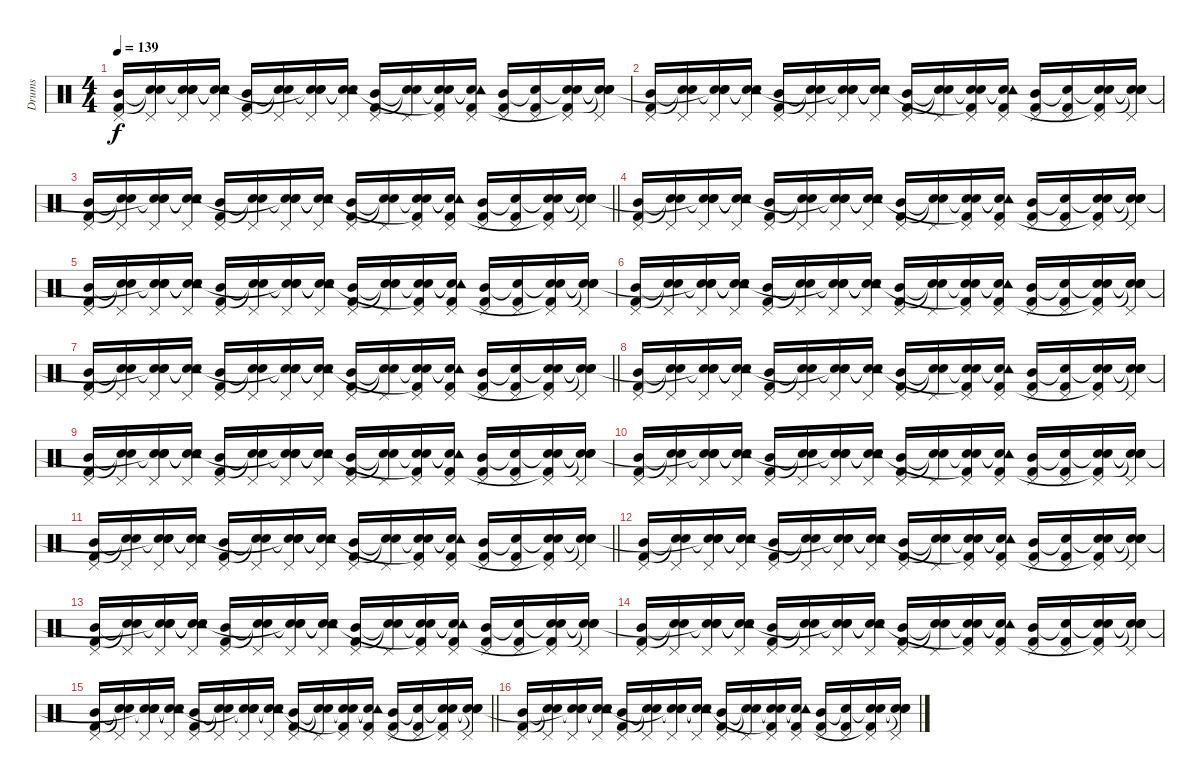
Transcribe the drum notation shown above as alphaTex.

\track ("Drums" "Drums") {instrument percussion}
\staff {score}
\articulation defaults
\ts (4 4)
\tempo 139
\clef neutral
\ks c
("Mid Tom (hit)" "Pedal Hi-Hat (hit)" "Kick (hit) 2").16{dy f} ("Snare (hit)"{t} "Pedal Hi-Hat (hit)" "Snare (hit)"{t}).16 ("Snare (hit)"{t} "Snare (hit) 2" "Pedal Hi-Hat (hit)" "Snare (hit)"{t}).16 ("Snare (hit)"{t} "Tambourine (hit)"{t} "Pedal Hi-Hat (hit)" "Snare (hit)"{t}).16 ("Mid Tom (hit)" "Pedal Hi-Hat (hit)" "Kick (hit) 2").16 ("Snare (hit)"{t} "Pedal Hi-Hat (hit)" "Snare (hit)"{t}).16 ("Snare (hit)"{t} "Snare (hit) 2" "Pedal Hi-Hat (hit)" "Snare (hit)"{t}).16 ("Snare (hit)"{t} "Tambourine (hit)"{t} "Pedal Hi-Hat (hit)" "Snare (hit)"{t}).16 ("Mid Tom (hit)" "Pedal Hi-Hat (hit)" "Kick (hit) 2").16 ("Snare (hit)"{t} "Pedal Hi-Hat (hit)" "Snare (hit)"{t}).16 ("Snare (hit)"{t} "Snare (hit) 2" "Pedal Hi-Hat (hit)" "Kick (hit) 2"{t}).16 ("Snare (hit)"{t} "Tambourine (hit)"{t} "Pedal Hi-Hat (hit)" "Kick (hit) 2").16 ("Mid Tom (hit)" "Pedal Hi-Hat (hit)" "Kick (hit) 2").16 ("Snare (hit)"{t} "Pedal Hi-Hat (hit)" "Kick (hit) 2").16 ("Snare (hit)"{t} "Snare (hit) 2" "Pedal Hi-Hat (hit)" "Kick (hit) 2"{t}).16 ("Snare (hit)"{t} "Snare (hit)"{t} "Pedal Hi-Hat (hit)" "Snare (hit)"{t}).16 |
("Mid Tom (hit)" "Pedal Hi-Hat (hit)" "Kick (hit) 2").16 ("Snare (hit)"{t} "Pedal Hi-Hat (hit)" "Snare (hit)"{t}).16 ("Snare (hit)"{t} "Snare (hit) 2" "Pedal Hi-Hat (hit)" "Snare (hit)"{t}).16 ("Snare (hit)"{t} "Tambourine (hit)"{t} "Pedal Hi-Hat (hit)" "Snare (hit)"{t}).16 ("Mid Tom (hit)" "Pedal Hi-Hat (hit)" "Kick (hit) 2").16 ("Snare (hit)"{t} "Pedal Hi-Hat (hit)" "Snare (hit)"{t}).16 ("Snare (hit)"{t} "Snare (hit) 2" "Pedal Hi-Hat (hit)" "Snare (hit)"{t}).16 ("Snare (hit)"{t} "Tambourine (hit)"{t} "Pedal Hi-Hat (hit)" "Snare (hit)"{t}).16 ("Mid Tom (hit)" "Pedal Hi-Hat (hit)" "Kick (hit) 2").16 ("Snare (hit)"{t} "Pedal Hi-Hat (hit)" "Snare (hit)"{t}).16 ("Snare (hit)"{t} "Snare (hit) 2" "Pedal Hi-Hat (hit)" "Kick (hit) 2"{t}).16 ("Snare (hit)"{t} "Tambourine (hit)"{t} "Pedal Hi-Hat (hit)" "Kick (hit) 2").16 ("Mid Tom (hit)" "Pedal Hi-Hat (hit)" "Kick (hit) 2").16 ("Snare (hit)"{t} "Pedal Hi-Hat (hit)" "Kick (hit) 2").16 ("Snare (hit)"{t} "Snare (hit) 2" "Pedal Hi-Hat (hit)" "Kick (hit) 2"{t}).16 ("Snare (hit)"{t} "Snare (hit)"{t} "Pedal Hi-Hat (hit)" "Snare (hit)"{t}).16 |
\barLineRight lightlight
("Mid Tom (hit)" "Pedal Hi-Hat (hit)" "Kick (hit) 2").16 ("Snare (hit)"{t} "Pedal Hi-Hat (hit)" "Snare (hit)"{t}).16 ("Snare (hit)"{t} "Snare (hit) 2" "Pedal Hi-Hat (hit)" "Snare (hit)"{t}).16 ("Snare (hit)"{t} "Tambourine (hit)"{t} "Pedal Hi-Hat (hit)" "Snare (hit)"{t}).16 ("Mid Tom (hit)" "Pedal Hi-Hat (hit)" "Kick (hit) 2").16 ("Snare (hit)"{t} "Pedal Hi-Hat (hit)" "Snare (hit)"{t}).16 ("Snare (hit)"{t} "Snare (hit) 2" "Pedal Hi-Hat (hit)" "Snare (hit)"{t}).16 ("Snare (hit)"{t} "Tambourine (hit)"{t} "Pedal Hi-Hat (hit)" "Snare (hit)"{t}).16 ("Mid Tom (hit)" "Pedal Hi-Hat (hit)" "Kick (hit) 2").16 ("Snare (hit)"{t} "Pedal Hi-Hat (hit)" "Snare (hit)"{t}).16 ("Snare (hit)"{t} "Snare (hit) 2" "Pedal Hi-Hat (hit)" "Kick (hit) 2"{t}).16 ("Snare (hit)"{t} "Tambourine (hit)"{t} "Pedal Hi-Hat (hit)" "Kick (hit) 2").16 ("Mid Tom (hit)" "Pedal Hi-Hat (hit)" "Kick (hit) 2").16 ("Snare (hit)"{t} "Pedal Hi-Hat (hit)" "Kick (hit) 2").16 ("Snare (hit)"{t} "Snare (hit) 2" "Pedal Hi-Hat (hit)" "Kick (hit) 2"{t}).16 ("Snare (hit)"{t} "Snare (hit)"{t} "Pedal Hi-Hat (hit)" "Snare (hit)"{t}).16 |
("Mid Tom (hit)" "Pedal Hi-Hat (hit)" "Kick (hit) 2").16 ("Snare (hit)"{t} "Pedal Hi-Hat (hit)" "Snare (hit)"{t}).16 ("Snare (hit)"{t} "Snare (hit) 2" "Pedal Hi-Hat (hit)" "Snare (hit)"{t}).16 ("Snare (hit)"{t} "Tambourine (hit)"{t} "Pedal Hi-Hat (hit)" "Snare (hit)"{t}).16 ("Mid Tom (hit)" "Pedal Hi-Hat (hit)" "Kick (hit) 2").16 ("Snare (hit)"{t} "Pedal Hi-Hat (hit)" "Snare (hit)"{t}).16 ("Snare (hit)"{t} "Snare (hit) 2" "Pedal Hi-Hat (hit)" "Snare (hit)"{t}).16 ("Snare (hit)"{t} "Tambourine (hit)"{t} "Pedal Hi-Hat (hit)" "Snare (hit)"{t}).16 ("Mid Tom (hit)" "Pedal Hi-Hat (hit)" "Kick (hit) 2").16 ("Snare (hit)"{t} "Pedal Hi-Hat (hit)" "Snare (hit)"{t}).16 ("Snare (hit)"{t} "Snare (hit) 2" "Pedal Hi-Hat (hit)" "Kick (hit) 2"{t}).16 ("Snare (hit)"{t} "Tambourine (hit)"{t} "Pedal Hi-Hat (hit)" "Kick (hit) 2").16 ("Mid Tom (hit)" "Pedal Hi-Hat (hit)" "Kick (hit) 2").16 ("Snare (hit)"{t} "Pedal Hi-Hat (hit)" "Kick (hit) 2").16 ("Snare (hit)"{t} "Snare (hit) 2" "Pedal Hi-Hat (hit)" "Kick (hit) 2"{t}).16 ("Snare (hit)"{t} "Snare (hit)"{t} "Pedal Hi-Hat (hit)" "Snare (hit)"{t}).16 |
("Mid Tom (hit)" "Pedal Hi-Hat (hit)" "Kick (hit) 2").16 ("Snare (hit)"{t} "Pedal Hi-Hat (hit)" "Snare (hit)"{t}).16 ("Snare (hit)"{t} "Snare (hit) 2" "Pedal Hi-Hat (hit)" "Snare (hit)"{t}).16 ("Snare (hit)"{t} "Tambourine (hit)"{t} "Pedal Hi-Hat (hit)" "Snare (hit)"{t}).16 ("Mid Tom (hit)" "Pedal Hi-Hat (hit)" "Kick (hit) 2").16 ("Snare (hit)"{t} "Pedal Hi-Hat (hit)" "Snare (hit)"{t}).16 ("Snare (hit)"{t} "Snare (hit) 2" "Pedal Hi-Hat (hit)" "Snare (hit)"{t}).16 ("Snare (hit)"{t} "Tambourine (hit)"{t} "Pedal Hi-Hat (hit)" "Snare (hit)"{t}).16 ("Mid Tom (hit)" "Pedal Hi-Hat (hit)" "Kick (hit) 2").16 ("Snare (hit)"{t} "Pedal Hi-Hat (hit)" "Snare (hit)"{t}).16 ("Snare (hit)"{t} "Snare (hit) 2" "Pedal Hi-Hat (hit)" "Kick (hit) 2"{t}).16 ("Snare (hit)"{t} "Tambourine (hit)"{t} "Pedal Hi-Hat (hit)" "Kick (hit) 2").16 ("Mid Tom (hit)" "Pedal Hi-Hat (hit)" "Kick (hit) 2").16 ("Snare (hit)"{t} "Pedal Hi-Hat (hit)" "Kick (hit) 2").16 ("Snare (hit)"{t} "Snare (hit) 2" "Pedal Hi-Hat (hit)" "Kick (hit) 2"{t}).16 ("Snare (hit)"{t} "Snare (hit)"{t} "Pedal Hi-Hat (hit)" "Snare (hit)"{t}).16 |
("Mid Tom (hit)" "Pedal Hi-Hat (hit)" "Kick (hit) 2").16 ("Snare (hit)"{t} "Pedal Hi-Hat (hit)" "Snare (hit)"{t}).16 ("Snare (hit)"{t} "Snare (hit) 2" "Pedal Hi-Hat (hit)" "Snare (hit)"{t}).16 ("Snare (hit)"{t} "Tambourine (hit)"{t} "Pedal Hi-Hat (hit)" "Snare (hit)"{t}).16 ("Mid Tom (hit)" "Pedal Hi-Hat (hit)" "Kick (hit) 2").16 ("Snare (hit)"{t} "Pedal Hi-Hat (hit)" "Snare (hit)"{t}).16 ("Snare (hit)"{t} "Snare (hit) 2" "Pedal Hi-Hat (hit)" "Snare (hit)"{t}).16 ("Snare (hit)"{t} "Tambourine (hit)"{t} "Pedal Hi-Hat (hit)" "Snare (hit)"{t}).16 ("Mid Tom (hit)" "Pedal Hi-Hat (hit)" "Kick (hit) 2").16 ("Snare (hit)"{t} "Pedal Hi-Hat (hit)" "Snare (hit)"{t}).16 ("Snare (hit)"{t} "Snare (hit) 2" "Pedal Hi-Hat (hit)" "Kick (hit) 2"{t}).16 ("Snare (hit)"{t} "Tambourine (hit)"{t} "Pedal Hi-Hat (hit)" "Kick (hit) 2").16 ("Mid Tom (hit)" "Pedal Hi-Hat (hit)" "Kick (hit) 2").16 ("Snare (hit)"{t} "Pedal Hi-Hat (hit)" "Kick (hit) 2").16 ("Snare (hit)"{t} "Snare (hit) 2" "Pedal Hi-Hat (hit)" "Kick (hit) 2"{t}).16 ("Snare (hit)"{t} "Snare (hit)"{t} "Pedal Hi-Hat (hit)" "Snare (hit)"{t}).16 |
\barLineRight lightlight
("Mid Tom (hit)" "Pedal Hi-Hat (hit)" "Kick (hit) 2").16 ("Snare (hit)"{t} "Pedal Hi-Hat (hit)" "Snare (hit)"{t}).16 ("Snare (hit)"{t} "Snare (hit) 2" "Pedal Hi-Hat (hit)" "Snare (hit)"{t}).16 ("Snare (hit)"{t} "Tambourine (hit)"{t} "Pedal Hi-Hat (hit)" "Snare (hit)"{t}).16 ("Mid Tom (hit)" "Pedal Hi-Hat (hit)" "Kick (hit) 2").16 ("Snare (hit)"{t} "Pedal Hi-Hat (hit)" "Snare (hit)"{t}).16 ("Snare (hit)"{t} "Snare (hit) 2" "Pedal Hi-Hat (hit)" "Snare (hit)"{t}).16 ("Snare (hit)"{t} "Tambourine (hit)"{t} "Pedal Hi-Hat (hit)" "Snare (hit)"{t}).16 ("Mid Tom (hit)" "Pedal Hi-Hat (hit)" "Kick (hit) 2").16 ("Snare (hit)"{t} "Pedal Hi-Hat (hit)" "Snare (hit)"{t}).16 ("Snare (hit)"{t} "Snare (hit) 2" "Pedal Hi-Hat (hit)" "Kick (hit) 2"{t}).16 ("Snare (hit)"{t} "Tambourine (hit)"{t} "Pedal Hi-Hat (hit)" "Kick (hit) 2").16 ("Mid Tom (hit)" "Pedal Hi-Hat (hit)" "Kick (hit) 2").16 ("Snare (hit)"{t} "Pedal Hi-Hat (hit)" "Kick (hit) 2").16 ("Snare (hit)"{t} "Snare (hit) 2" "Pedal Hi-Hat (hit)" "Kick (hit) 2"{t}).16 ("Snare (hit)"{t} "Snare (hit)"{t} "Pedal Hi-Hat (hit)" "Snare (hit)"{t}).16 |
("Mid Tom (hit)" "Pedal Hi-Hat (hit)" "Kick (hit) 2").16 ("Snare (hit)"{t} "Pedal Hi-Hat (hit)" "Snare (hit)"{t}).16 ("Snare (hit)"{t} "Snare (hit) 2" "Pedal Hi-Hat (hit)" "Snare (hit)"{t}).16 ("Snare (hit)"{t} "Tambourine (hit)"{t} "Pedal Hi-Hat (hit)" "Snare (hit)"{t}).16 ("Mid Tom (hit)" "Pedal Hi-Hat (hit)" "Kick (hit) 2").16 ("Snare (hit)"{t} "Pedal Hi-Hat (hit)" "Snare (hit)"{t}).16 ("Snare (hit)"{t} "Snare (hit) 2" "Pedal Hi-Hat (hit)" "Snare (hit)"{t}).16 ("Snare (hit)"{t} "Tambourine (hit)"{t} "Pedal Hi-Hat (hit)" "Snare (hit)"{t}).16 ("Mid Tom (hit)" "Pedal Hi-Hat (hit)" "Kick (hit) 2").16 ("Snare (hit)"{t} "Pedal Hi-Hat (hit)" "Snare (hit)"{t}).16 ("Snare (hit)"{t} "Snare (hit) 2" "Pedal Hi-Hat (hit)" "Kick (hit) 2"{t}).16 ("Snare (hit)"{t} "Tambourine (hit)"{t} "Pedal Hi-Hat (hit)" "Kick (hit) 2").16 ("Mid Tom (hit)" "Pedal Hi-Hat (hit)" "Kick (hit) 2").16 ("Snare (hit)"{t} "Pedal Hi-Hat (hit)" "Kick (hit) 2").16 ("Snare (hit)"{t} "Snare (hit) 2" "Pedal Hi-Hat (hit)" "Kick (hit) 2"{t}).16 ("Snare (hit)"{t} "Snare (hit)"{t} "Pedal Hi-Hat (hit)" "Snare (hit)"{t}).16 |
("Mid Tom (hit)" "Pedal Hi-Hat (hit)" "Kick (hit) 2").16 ("Snare (hit)"{t} "Pedal Hi-Hat (hit)" "Snare (hit)"{t}).16 ("Snare (hit)"{t} "Snare (hit) 2" "Pedal Hi-Hat (hit)" "Snare (hit)"{t}).16 ("Snare (hit)"{t} "Tambourine (hit)"{t} "Pedal Hi-Hat (hit)" "Snare (hit)"{t}).16 ("Mid Tom (hit)" "Pedal Hi-Hat (hit)" "Kick (hit) 2").16 ("Snare (hit)"{t} "Pedal Hi-Hat (hit)" "Snare (hit)"{t}).16 ("Snare (hit)"{t} "Snare (hit) 2" "Pedal Hi-Hat (hit)" "Snare (hit)"{t}).16 ("Snare (hit)"{t} "Tambourine (hit)"{t} "Pedal Hi-Hat (hit)" "Snare (hit)"{t}).16 ("Mid Tom (hit)" "Pedal Hi-Hat (hit)" "Kick (hit) 2").16 ("Snare (hit)"{t} "Pedal Hi-Hat (hit)" "Snare (hit)"{t}).16 ("Snare (hit)"{t} "Snare (hit) 2" "Pedal Hi-Hat (hit)" "Kick (hit) 2"{t}).16 ("Snare (hit)"{t} "Tambourine (hit)"{t} "Pedal Hi-Hat (hit)" "Kick (hit) 2").16 ("Mid Tom (hit)" "Pedal Hi-Hat (hit)" "Kick (hit) 2").16 ("Snare (hit)"{t} "Pedal Hi-Hat (hit)" "Kick (hit) 2").16 ("Snare (hit)"{t} "Snare (hit) 2" "Pedal Hi-Hat (hit)" "Kick (hit) 2"{t}).16 ("Snare (hit)"{t} "Snare (hit)"{t} "Pedal Hi-Hat (hit)" "Snare (hit)"{t}).16 |
("Mid Tom (hit)" "Pedal Hi-Hat (hit)" "Kick (hit) 2").16 ("Snare (hit)"{t} "Pedal Hi-Hat (hit)" "Snare (hit)"{t}).16 ("Snare (hit)"{t} "Snare (hit) 2" "Pedal Hi-Hat (hit)" "Snare (hit)"{t}).16 ("Snare (hit)"{t} "Tambourine (hit)"{t} "Pedal Hi-Hat (hit)" "Snare (hit)"{t}).16 ("Mid Tom (hit)" "Pedal Hi-Hat (hit)" "Kick (hit) 2").16 ("Snare (hit)"{t} "Pedal Hi-Hat (hit)" "Snare (hit)"{t}).16 ("Snare (hit)"{t} "Snare (hit) 2" "Pedal Hi-Hat (hit)" "Snare (hit)"{t}).16 ("Snare (hit)"{t} "Tambourine (hit)"{t} "Pedal Hi-Hat (hit)" "Snare (hit)"{t}).16 ("Mid Tom (hit)" "Pedal Hi-Hat (hit)" "Kick (hit) 2").16 ("Snare (hit)"{t} "Pedal Hi-Hat (hit)" "Snare (hit)"{t}).16 ("Snare (hit)"{t} "Snare (hit) 2" "Pedal Hi-Hat (hit)" "Kick (hit) 2"{t}).16 ("Snare (hit)"{t} "Tambourine (hit)"{t} "Pedal Hi-Hat (hit)" "Kick (hit) 2").16 ("Mid Tom (hit)" "Pedal Hi-Hat (hit)" "Kick (hit) 2").16 ("Snare (hit)"{t} "Pedal Hi-Hat (hit)" "Kick (hit) 2").16 ("Snare (hit)"{t} "Snare (hit) 2" "Pedal Hi-Hat (hit)" "Kick (hit) 2"{t}).16 ("Snare (hit)"{t} "Snare (hit)"{t} "Pedal Hi-Hat (hit)" "Snare (hit)"{t}).16 |
\barLineRight lightlight
("Mid Tom (hit)" "Pedal Hi-Hat (hit)" "Kick (hit) 2").16 ("Snare (hit)"{t} "Pedal Hi-Hat (hit)" "Snare (hit)"{t}).16 ("Snare (hit)"{t} "Snare (hit) 2" "Pedal Hi-Hat (hit)" "Snare (hit)"{t}).16 ("Snare (hit)"{t} "Tambourine (hit)"{t} "Pedal Hi-Hat (hit)" "Snare (hit)"{t}).16 ("Mid Tom (hit)" "Pedal Hi-Hat (hit)" "Kick (hit) 2").16 ("Snare (hit)"{t} "Pedal Hi-Hat (hit)" "Snare (hit)"{t}).16 ("Snare (hit)"{t} "Snare (hit) 2" "Pedal Hi-Hat (hit)" "Snare (hit)"{t}).16 ("Snare (hit)"{t} "Tambourine (hit)"{t} "Pedal Hi-Hat (hit)" "Snare (hit)"{t}).16 ("Mid Tom (hit)" "Pedal Hi-Hat (hit)" "Kick (hit) 2").16 ("Snare (hit)"{t} "Pedal Hi-Hat (hit)" "Snare (hit)"{t}).16 ("Snare (hit)"{t} "Snare (hit) 2" "Pedal Hi-Hat (hit)" "Kick (hit) 2"{t}).16 ("Snare (hit)"{t} "Tambourine (hit)"{t} "Pedal Hi-Hat (hit)" "Kick (hit) 2").16 ("Mid Tom (hit)" "Pedal Hi-Hat (hit)" "Kick (hit) 2").16 ("Snare (hit)"{t} "Pedal Hi-Hat (hit)" "Kick (hit) 2").16 ("Snare (hit)"{t} "Snare (hit) 2" "Pedal Hi-Hat (hit)" "Kick (hit) 2"{t}).16 ("Snare (hit)"{t} "Snare (hit)"{t} "Pedal Hi-Hat (hit)" "Snare (hit)"{t}).16 |
("Mid Tom (hit)" "Pedal Hi-Hat (hit)" "Kick (hit) 2").16 ("Snare (hit)"{t} "Pedal Hi-Hat (hit)" "Snare (hit)"{t}).16 ("Snare (hit)"{t} "Snare (hit) 2" "Pedal Hi-Hat (hit)" "Snare (hit)"{t}).16 ("Snare (hit)"{t} "Tambourine (hit)"{t} "Pedal Hi-Hat (hit)" "Snare (hit)"{t}).16 ("Mid Tom (hit)" "Pedal Hi-Hat (hit)" "Kick (hit) 2").16 ("Snare (hit)"{t} "Pedal Hi-Hat (hit)" "Snare (hit)"{t}).16 ("Snare (hit)"{t} "Snare (hit) 2" "Pedal Hi-Hat (hit)" "Snare (hit)"{t}).16 ("Snare (hit)"{t} "Tambourine (hit)"{t} "Pedal Hi-Hat (hit)" "Snare (hit)"{t}).16 ("Mid Tom (hit)" "Pedal Hi-Hat (hit)" "Kick (hit) 2").16 ("Snare (hit)"{t} "Pedal Hi-Hat (hit)" "Snare (hit)"{t}).16 ("Snare (hit)"{t} "Snare (hit) 2" "Pedal Hi-Hat (hit)" "Kick (hit) 2"{t}).16 ("Snare (hit)"{t} "Tambourine (hit)"{t} "Pedal Hi-Hat (hit)" "Kick (hit) 2").16 ("Mid Tom (hit)" "Pedal Hi-Hat (hit)" "Kick (hit) 2").16 ("Snare (hit)"{t} "Pedal Hi-Hat (hit)" "Kick (hit) 2").16 ("Snare (hit)"{t} "Snare (hit) 2" "Pedal Hi-Hat (hit)" "Kick (hit) 2"{t}).16 ("Snare (hit)"{t} "Snare (hit)"{t} "Pedal Hi-Hat (hit)" "Snare (hit)"{t}).16 |
("Mid Tom (hit)" "Pedal Hi-Hat (hit)" "Kick (hit) 2").16 ("Snare (hit)"{t} "Pedal Hi-Hat (hit)" "Snare (hit)"{t}).16 ("Snare (hit)"{t} "Snare (hit) 2" "Pedal Hi-Hat (hit)" "Snare (hit)"{t}).16 ("Snare (hit)"{t} "Tambourine (hit)"{t} "Pedal Hi-Hat (hit)" "Snare (hit)"{t}).16 ("Mid Tom (hit)" "Pedal Hi-Hat (hit)" "Kick (hit) 2").16 ("Snare (hit)"{t} "Pedal Hi-Hat (hit)" "Snare (hit)"{t}).16 ("Snare (hit)"{t} "Snare (hit) 2" "Pedal Hi-Hat (hit)" "Snare (hit)"{t}).16 ("Snare (hit)"{t} "Tambourine (hit)"{t} "Pedal Hi-Hat (hit)" "Snare (hit)"{t}).16 ("Mid Tom (hit)" "Pedal Hi-Hat (hit)" "Kick (hit) 2").16 ("Snare (hit)"{t} "Pedal Hi-Hat (hit)" "Snare (hit)"{t}).16 ("Snare (hit)"{t} "Snare (hit) 2" "Pedal Hi-Hat (hit)" "Kick (hit) 2"{t}).16 ("Snare (hit)"{t} "Tambourine (hit)"{t} "Pedal Hi-Hat (hit)" "Kick (hit) 2").16 ("Mid Tom (hit)" "Pedal Hi-Hat (hit)" "Kick (hit) 2").16 ("Snare (hit)"{t} "Pedal Hi-Hat (hit)" "Kick (hit) 2").16 ("Snare (hit)"{t} "Snare (hit) 2" "Pedal Hi-Hat (hit)" "Kick (hit) 2"{t}).16 ("Snare (hit)"{t} "Snare (hit)"{t} "Pedal Hi-Hat (hit)" "Snare (hit)"{t}).16 |
("Mid Tom (hit)" "Pedal Hi-Hat (hit)" "Kick (hit) 2").16 ("Snare (hit)"{t} "Pedal Hi-Hat (hit)" "Snare (hit)"{t}).16 ("Snare (hit)"{t} "Snare (hit) 2" "Pedal Hi-Hat (hit)" "Snare (hit)"{t}).16 ("Snare (hit)"{t} "Tambourine (hit)"{t} "Pedal Hi-Hat (hit)" "Snare (hit)"{t}).16 ("Mid Tom (hit)" "Pedal Hi-Hat (hit)" "Kick (hit) 2").16 ("Snare (hit)"{t} "Pedal Hi-Hat (hit)" "Snare (hit)"{t}).16 ("Snare (hit)"{t} "Snare (hit) 2" "Pedal Hi-Hat (hit)" "Snare (hit)"{t}).16 ("Snare (hit)"{t} "Tambourine (hit)"{t} "Pedal Hi-Hat (hit)" "Snare (hit)"{t}).16 ("Mid Tom (hit)" "Pedal Hi-Hat (hit)" "Kick (hit) 2").16 ("Snare (hit)"{t} "Pedal Hi-Hat (hit)" "Snare (hit)"{t}).16 ("Snare (hit)"{t} "Snare (hit) 2" "Pedal Hi-Hat (hit)" "Kick (hit) 2"{t}).16 ("Snare (hit)"{t} "Tambourine (hit)"{t} "Pedal Hi-Hat (hit)" "Kick (hit) 2").16 ("Mid Tom (hit)" "Pedal Hi-Hat (hit)" "Kick (hit) 2").16 ("Snare (hit)"{t} "Pedal Hi-Hat (hit)" "Kick (hit) 2").16 ("Snare (hit)"{t} "Snare (hit) 2" "Pedal Hi-Hat (hit)" "Kick (hit) 2"{t}).16 ("Snare (hit)"{t} "Snare (hit)"{t} "Pedal Hi-Hat (hit)" "Snare (hit)"{t}).16 |
\barLineRight lightlight
("Mid Tom (hit)" "Pedal Hi-Hat (hit)" "Kick (hit) 2").16 ("Snare (hit)"{t} "Pedal Hi-Hat (hit)" "Snare (hit)"{t}).16 ("Snare (hit)"{t} "Snare (hit) 2" "Pedal Hi-Hat (hit)" "Snare (hit)"{t}).16 ("Snare (hit)"{t} "Tambourine (hit)"{t} "Pedal Hi-Hat (hit)" "Snare (hit)"{t}).16 ("Mid Tom (hit)" "Pedal Hi-Hat (hit)" "Kick (hit) 2").16 ("Snare (hit)"{t} "Pedal Hi-Hat (hit)" "Snare (hit)"{t}).16 ("Snare (hit)"{t} "Snare (hit) 2" "Pedal Hi-Hat (hit)" "Snare (hit)"{t}).16 ("Snare (hit)"{t} "Tambourine (hit)"{t} "Pedal Hi-Hat (hit)" "Snare (hit)"{t}).16 ("Mid Tom (hit)" "Pedal Hi-Hat (hit)" "Kick (hit) 2").16 ("Snare (hit)"{t} "Pedal Hi-Hat (hit)" "Snare (hit)"{t}).16 ("Snare (hit)"{t} "Snare (hit) 2" "Pedal Hi-Hat (hit)" "Kick (hit) 2"{t}).16 ("Snare (hit)"{t} "Tambourine (hit)"{t} "Pedal Hi-Hat (hit)" "Kick (hit) 2").16 ("Mid Tom (hit)" "Pedal Hi-Hat (hit)" "Kick (hit) 2").16 ("Snare (hit)"{t} "Pedal Hi-Hat (hit)" "Kick (hit) 2").16 ("Snare (hit)"{t} "Snare (hit) 2" "Pedal Hi-Hat (hit)" "Kick (hit) 2"{t}).16 ("Snare (hit)"{t} "Snare (hit)"{t} "Pedal Hi-Hat (hit)" "Snare (hit)"{t}).16 |
("Mid Tom (hit)" "Pedal Hi-Hat (hit)" "Kick (hit) 2").16 ("Snare (hit)"{t} "Pedal Hi-Hat (hit)" "Snare (hit)"{t}).16 ("Snare (hit)"{t} "Snare (hit) 2" "Pedal Hi-Hat (hit)" "Snare (hit)"{t}).16 ("Snare (hit)"{t} "Tambourine (hit)"{t} "Pedal Hi-Hat (hit)" "Snare (hit)"{t}).16 ("Mid Tom (hit)" "Pedal Hi-Hat (hit)" "Kick (hit) 2").16 ("Snare (hit)"{t} "Pedal Hi-Hat (hit)" "Snare (hit)"{t}).16 ("Snare (hit)"{t} "Snare (hit) 2" "Pedal Hi-Hat (hit)" "Snare (hit)"{t}).16 ("Snare (hit)"{t} "Tambourine (hit)"{t} "Pedal Hi-Hat (hit)" "Snare (hit)"{t}).16 ("Mid Tom (hit)" "Pedal Hi-Hat (hit)" "Kick (hit) 2").16 ("Snare (hit)"{t} "Pedal Hi-Hat (hit)" "Snare (hit)"{t}).16 ("Snare (hit)"{t} "Snare (hit) 2" "Pedal Hi-Hat (hit)" "Kick (hit) 2"{t}).16 ("Snare (hit)"{t} "Tambourine (hit)"{t} "Pedal Hi-Hat (hit)" "Kick (hit) 2").16 ("Mid Tom (hit)" "Pedal Hi-Hat (hit)" "Kick (hit) 2").16 ("Snare (hit)"{t} "Pedal Hi-Hat (hit)" "Kick (hit) 2").16 ("Snare (hit)"{t} "Snare (hit) 2" "Pedal Hi-Hat (hit)" "Kick (hit) 2"{t}).16 ("Snare (hit)"{t} "Snare (hit)"{t} "Pedal Hi-Hat (hit)" "Snare (hit)"{t}).16
